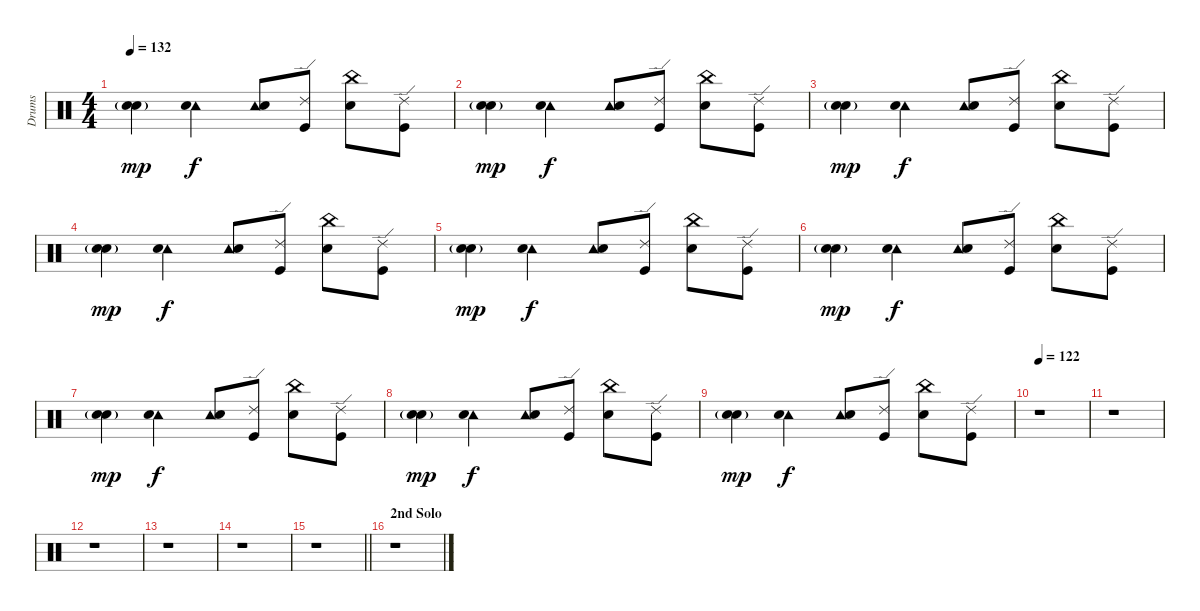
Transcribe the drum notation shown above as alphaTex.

\track ("Drums" "Drums") {instrument percussion}
\staff {score}
\articulation defaults
\ts (4 4)
\tempo 132
\clef neutral
\ks c
("Snare (hit) 2" "Electric Snare (hit)"{g}).4{dy mp} ("Tambourine (hit)" "Snare (hit) 2").4{dy f} ("Tambourine (hit)" "Snare (hit) 2").8 ("Ride (edge) 2" "Kick (hit)").8 ("China (hit)" "Snare (hit) 2").8 ("Ride (edge) 2" "Kick (hit)").8 |
("Snare (hit) 2" "Electric Snare (hit)"{g}).4{dy mp} ("Tambourine (hit)" "Snare (hit) 2").4{dy f} ("Tambourine (hit)" "Snare (hit) 2").8 ("Ride (edge) 2" "Kick (hit)").8 ("China (hit)" "Snare (hit) 2").8 ("Ride (edge) 2" "Kick (hit)").8 |
("Snare (hit) 2" "Electric Snare (hit)"{g}).4{dy mp} ("Tambourine (hit)" "Snare (hit) 2").4{dy f} ("Tambourine (hit)" "Snare (hit) 2").8 ("Ride (edge) 2" "Kick (hit)").8 ("China (hit)" "Snare (hit) 2").8 ("Ride (edge) 2" "Kick (hit)").8 |
("Snare (hit) 2" "Electric Snare (hit)"{g}).4{dy mp} ("Tambourine (hit)" "Snare (hit) 2").4{dy f} ("Tambourine (hit)" "Snare (hit) 2").8 ("Ride (edge) 2" "Kick (hit)").8 ("China (hit)" "Snare (hit) 2").8 ("Ride (edge) 2" "Kick (hit)").8 |
("Snare (hit) 2" "Electric Snare (hit)"{g}).4{dy mp} ("Tambourine (hit)" "Snare (hit) 2").4{dy f} ("Tambourine (hit)" "Snare (hit) 2").8 ("Ride (edge) 2" "Kick (hit)").8 ("China (hit)" "Snare (hit) 2").8 ("Ride (edge) 2" "Kick (hit)").8 |
("Snare (hit) 2" "Electric Snare (hit)"{g}).4{dy mp} ("Tambourine (hit)" "Snare (hit) 2").4{dy f} ("Tambourine (hit)" "Snare (hit) 2").8 ("Ride (edge) 2" "Kick (hit)").8 ("China (hit)" "Snare (hit) 2").8 ("Ride (edge) 2" "Kick (hit)").8 |
("Snare (hit) 2" "Electric Snare (hit)"{g}).4{dy mp} ("Tambourine (hit)" "Snare (hit) 2").4{dy f} ("Tambourine (hit)" "Snare (hit) 2").8 ("Ride (edge) 2" "Kick (hit)").8 ("China (hit)" "Snare (hit) 2").8 ("Ride (edge) 2" "Kick (hit)").8 |
("Snare (hit) 2" "Electric Snare (hit)"{g}).4{dy mp} ("Tambourine (hit)" "Snare (hit) 2").4{dy f} ("Tambourine (hit)" "Snare (hit) 2").8 ("Ride (edge) 2" "Kick (hit)").8 ("China (hit)" "Snare (hit) 2").8 ("Ride (edge) 2" "Kick (hit)").8 |
("Snare (hit) 2" "Electric Snare (hit)"{g}).4{dy mp} ("Tambourine (hit)" "Snare (hit) 2").4{dy f} ("Tambourine (hit)" "Snare (hit) 2").8 ("Ride (edge) 2" "Kick (hit)").8 ("China (hit)" "Snare (hit) 2").8 ("Ride (edge) 2" "Kick (hit)").8 |
\tempo 122
r.1 |
r.1 |
r.1 |
r.1 |
r.1 |
\barLineRight lightlight
r.1 |
\section ("" "2nd Solo")
r.1
